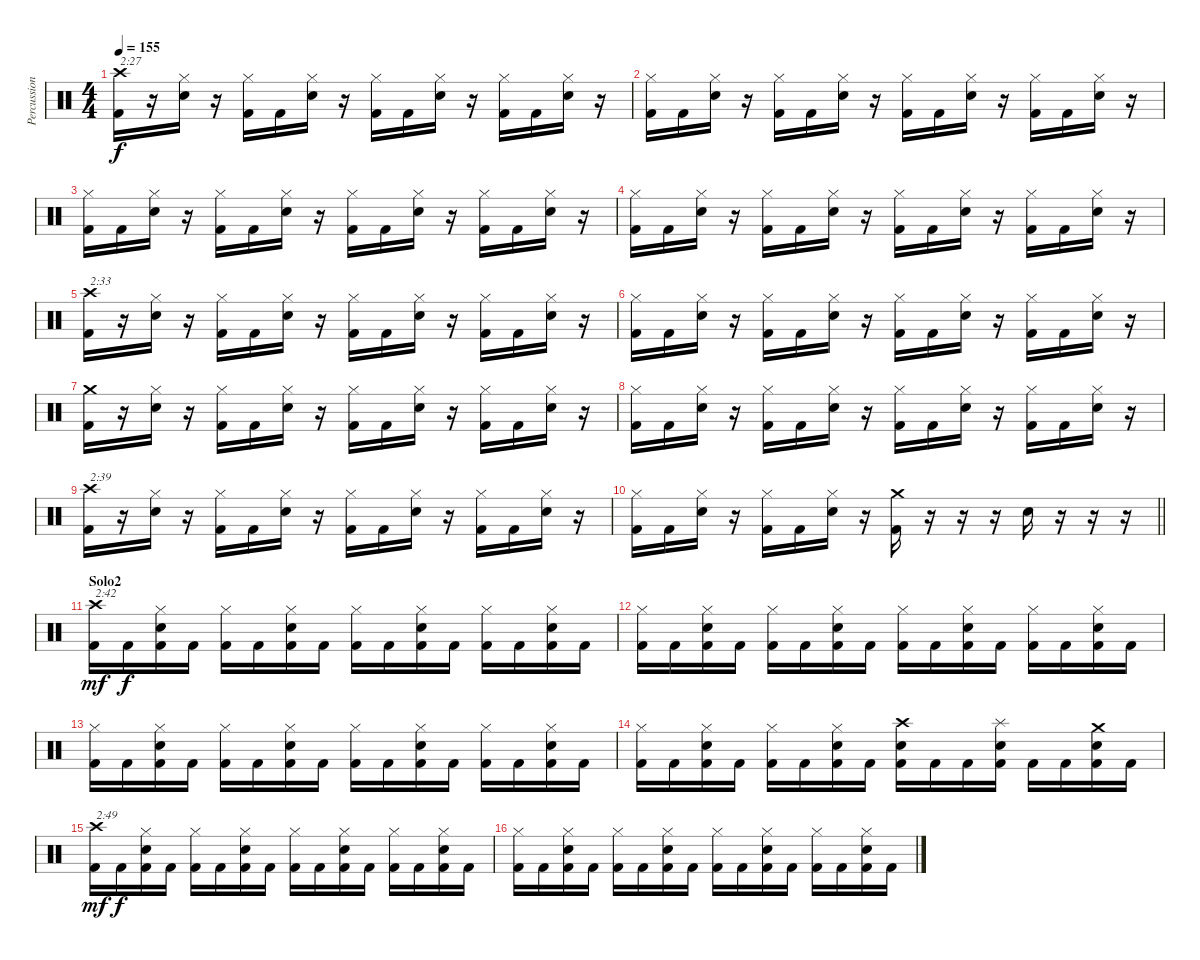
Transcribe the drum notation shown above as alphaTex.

\track ("Percussion" "Percussion") {instrument percussion}
\staff {score}
\articulation defaults
\ts (4 4)
\tempo 155
\clef neutral
\ks c
("Crash high (hit)" "Kick (hit) 2").16{txt "2:27" dy f} r.16 ("Hi-Hat (closed)" "Electric Snare (hit)").16 r.16 ("Hi-Hat (closed)" "Kick (hit) 2").16 "Kick (hit) 2".16 ("Hi-Hat (closed)" "Electric Snare (hit)").16 r.16 ("Hi-Hat (closed)" "Kick (hit) 2").16 "Kick (hit) 2".16 ("Hi-Hat (closed)" "Electric Snare (hit)").16 r.16 ("Hi-Hat (closed)" "Kick (hit) 2").16 "Kick (hit) 2".16 ("Hi-Hat (closed)" "Electric Snare (hit)").16 r.16 |
("Hi-Hat (closed)" "Kick (hit) 2").16 "Kick (hit) 2".16 ("Hi-Hat (closed)" "Electric Snare (hit)").16 r.16 ("Hi-Hat (closed)" "Kick (hit) 2").16 "Kick (hit) 2".16 ("Hi-Hat (closed)" "Electric Snare (hit)").16 r.16 ("Hi-Hat (closed)" "Kick (hit) 2").16 "Kick (hit) 2".16 ("Hi-Hat (closed)" "Electric Snare (hit)").16 r.16 ("Hi-Hat (closed)" "Kick (hit) 2").16 "Kick (hit) 2".16 ("Hi-Hat (closed)" "Electric Snare (hit)").16 r.16 |
("Hi-Hat (closed)" "Kick (hit) 2").16 "Kick (hit) 2".16 ("Hi-Hat (closed)" "Electric Snare (hit)").16 r.16 ("Hi-Hat (closed)" "Kick (hit) 2").16 "Kick (hit) 2".16 ("Hi-Hat (closed)" "Electric Snare (hit)").16 r.16 ("Hi-Hat (closed)" "Kick (hit) 2").16 "Kick (hit) 2".16 ("Hi-Hat (closed)" "Electric Snare (hit)").16 r.16 ("Hi-Hat (closed)" "Kick (hit) 2").16 "Kick (hit) 2".16 ("Hi-Hat (closed)" "Electric Snare (hit)").16 r.16 |
("Hi-Hat (closed)" "Kick (hit) 2").16 "Kick (hit) 2".16 ("Hi-Hat (closed)" "Electric Snare (hit)").16 r.16 ("Hi-Hat (closed)" "Kick (hit) 2").16 "Kick (hit) 2".16 ("Hi-Hat (closed)" "Electric Snare (hit)").16 r.16 ("Hi-Hat (closed)" "Kick (hit) 2").16 "Kick (hit) 2".16 ("Hi-Hat (closed)" "Electric Snare (hit)").16 r.16 ("Hi-Hat (closed)" "Kick (hit) 2").16 "Kick (hit) 2".16 ("Hi-Hat (closed)" "Electric Snare (hit)").16 r.16 |
("Crash high (hit)" "Kick (hit) 2").16{txt "2:33"} r.16 ("Hi-Hat (closed)" "Electric Snare (hit)").16 r.16 ("Hi-Hat (closed)" "Kick (hit) 2").16 "Kick (hit) 2".16 ("Hi-Hat (closed)" "Electric Snare (hit)").16 r.16 ("Hi-Hat (closed)" "Kick (hit) 2").16 "Kick (hit) 2".16 ("Hi-Hat (closed)" "Electric Snare (hit)").16 r.16 ("Hi-Hat (closed)" "Kick (hit) 2").16 "Kick (hit) 2".16 ("Hi-Hat (closed)" "Electric Snare (hit)").16 r.16 |
("Hi-Hat (closed)" "Kick (hit) 2").16 "Kick (hit) 2".16 ("Hi-Hat (closed)" "Electric Snare (hit)").16 r.16 ("Hi-Hat (closed)" "Kick (hit) 2").16 "Kick (hit) 2".16 ("Hi-Hat (closed)" "Electric Snare (hit)").16 r.16 ("Hi-Hat (closed)" "Kick (hit) 2").16 "Kick (hit) 2".16 ("Hi-Hat (closed)" "Electric Snare (hit)").16 r.16 ("Hi-Hat (closed)" "Kick (hit) 2").16 "Kick (hit) 2".16 ("Hi-Hat (closed)" "Electric Snare (hit)").16 r.16 |
("Crash medium (hit)" "Kick (hit) 2").16 r.16 ("Hi-Hat (closed)" "Electric Snare (hit)").16 r.16 ("Hi-Hat (closed)" "Kick (hit) 2").16 "Kick (hit) 2".16 ("Hi-Hat (closed)" "Electric Snare (hit)").16 r.16 ("Hi-Hat (closed)" "Kick (hit) 2").16 "Kick (hit) 2".16 ("Hi-Hat (closed)" "Electric Snare (hit)").16 r.16 ("Hi-Hat (closed)" "Kick (hit) 2").16 "Kick (hit) 2".16 ("Hi-Hat (closed)" "Electric Snare (hit)").16 r.16 |
("Hi-Hat (closed)" "Kick (hit) 2").16 "Kick (hit) 2".16 ("Hi-Hat (closed)" "Electric Snare (hit)").16 r.16 ("Hi-Hat (closed)" "Kick (hit) 2").16 "Kick (hit) 2".16 ("Hi-Hat (closed)" "Electric Snare (hit)").16 r.16 ("Hi-Hat (closed)" "Kick (hit) 2").16 "Kick (hit) 2".16 ("Hi-Hat (closed)" "Electric Snare (hit)").16 r.16 ("Hi-Hat (closed)" "Kick (hit) 2").16 "Kick (hit) 2".16 ("Hi-Hat (closed)" "Electric Snare (hit)").16 r.16 |
("Crash high (hit)" "Kick (hit) 2").16{txt "2:39"} r.16 ("Hi-Hat (closed)" "Electric Snare (hit)").16 r.16 ("Hi-Hat (closed)" "Kick (hit) 2").16 "Kick (hit) 2".16 ("Hi-Hat (closed)" "Electric Snare (hit)").16 r.16 ("Hi-Hat (closed)" "Kick (hit) 2").16 "Kick (hit) 2".16 ("Hi-Hat (closed)" "Electric Snare (hit)").16 r.16 ("Hi-Hat (closed)" "Kick (hit) 2").16 "Kick (hit) 2".16 ("Hi-Hat (closed)" "Electric Snare (hit)").16 r.16 |
\barLineRight lightlight
("Hi-Hat (closed)" "Kick (hit) 2").16 "Kick (hit) 2".16 ("Hi-Hat (closed)" "Electric Snare (hit)").16 r.16 ("Hi-Hat (closed)" "Kick (hit) 2").16 "Kick (hit) 2".16 ("Hi-Hat (closed)" "Electric Snare (hit)").16 r.16 ("Crash medium (hit)" "Kick (hit) 2").16 r.16 r.16 r.16 "Electric Snare (hit)".16 r.16 r.16 r.16 |
\section ("" "Solo2")
("Crash high (hit)" "Kick (hit) 2").16{txt "2:42" dy mf} "Kick (hit) 2".16{dy f} ("Hi-Hat (closed)" "Electric Snare (hit)" "Kick (hit) 2").16 "Kick (hit) 2".16 ("Hi-Hat (closed)" "Kick (hit) 2").16 "Kick (hit) 2".16 ("Hi-Hat (closed)" "Electric Snare (hit)" "Kick (hit) 2").16 "Kick (hit) 2".16 ("Hi-Hat (closed)" "Kick (hit) 2").16 "Kick (hit) 2".16 ("Hi-Hat (closed)" "Electric Snare (hit)" "Kick (hit) 2").16 "Kick (hit) 2".16 ("Hi-Hat (closed)" "Kick (hit) 2").16 "Kick (hit) 2".16 ("Hi-Hat (closed)" "Electric Snare (hit)" "Kick (hit) 2").16 "Kick (hit) 2".16 |
("Hi-Hat (closed)" "Kick (hit) 2").16 "Kick (hit) 2".16 ("Hi-Hat (closed)" "Electric Snare (hit)" "Kick (hit) 2").16 "Kick (hit) 2".16 ("Hi-Hat (closed)" "Kick (hit) 2").16 "Kick (hit) 2".16 ("Hi-Hat (closed)" "Electric Snare (hit)" "Kick (hit) 2").16 "Kick (hit) 2".16 ("Hi-Hat (closed)" "Kick (hit) 2").16 "Kick (hit) 2".16 ("Hi-Hat (closed)" "Electric Snare (hit)" "Kick (hit) 2").16 "Kick (hit) 2".16 ("Hi-Hat (closed)" "Kick (hit) 2").16 "Kick (hit) 2".16 ("Hi-Hat (closed)" "Electric Snare (hit)" "Kick (hit) 2").16 "Kick (hit) 2".16 |
("Hi-Hat (closed)" "Kick (hit) 2").16 "Kick (hit) 2".16 ("Hi-Hat (closed)" "Electric Snare (hit)" "Kick (hit) 2").16 "Kick (hit) 2".16 ("Hi-Hat (closed)" "Kick (hit) 2").16 "Kick (hit) 2".16 ("Hi-Hat (closed)" "Electric Snare (hit)" "Kick (hit) 2").16 "Kick (hit) 2".16 ("Hi-Hat (closed)" "Kick (hit) 2").16 "Kick (hit) 2".16 ("Hi-Hat (closed)" "Electric Snare (hit)" "Kick (hit) 2").16 "Kick (hit) 2".16 ("Hi-Hat (closed)" "Kick (hit) 2").16 "Kick (hit) 2".16 ("Hi-Hat (closed)" "Electric Snare (hit)" "Kick (hit) 2").16 "Kick (hit) 2".16 |
("Hi-Hat (closed)" "Kick (hit) 2").16 "Kick (hit) 2".16 ("Hi-Hat (closed)" "Electric Snare (hit)" "Kick (hit) 2").16 "Kick (hit) 2".16 ("Hi-Hat (closed)" "Kick (hit) 2").16 "Kick (hit) 2".16 ("Hi-Hat (closed)" "Electric Snare (hit)" "Kick (hit) 2").16 "Kick (hit) 2".16 ("Crash high (hit)" "Electric Snare (hit)" "Kick (hit) 2").16 "Kick (hit) 2".16 "Kick (hit) 2".16 ("Splash (hit)" "Electric Snare (hit)" "Kick (hit) 2").16 "Kick (hit) 2".16 "Kick (hit) 2".16 ("Crash medium (hit)" "Electric Snare (hit)" "Kick (hit) 2").16 "Kick (hit) 2".16 |
("Crash high (hit)" "Kick (hit) 2").16{txt "2:49" dy mf} "Kick (hit) 2".16{dy f} ("Hi-Hat (closed)" "Electric Snare (hit)" "Kick (hit) 2").16 "Kick (hit) 2".16 ("Hi-Hat (closed)" "Kick (hit) 2").16 "Kick (hit) 2".16 ("Hi-Hat (closed)" "Electric Snare (hit)" "Kick (hit) 2").16 "Kick (hit) 2".16 ("Hi-Hat (closed)" "Kick (hit) 2").16 "Kick (hit) 2".16 ("Hi-Hat (closed)" "Electric Snare (hit)" "Kick (hit) 2").16 "Kick (hit) 2".16 ("Hi-Hat (closed)" "Kick (hit) 2").16 "Kick (hit) 2".16 ("Hi-Hat (closed)" "Electric Snare (hit)" "Kick (hit) 2").16 "Kick (hit) 2".16 |
("Hi-Hat (closed)" "Kick (hit) 2").16 "Kick (hit) 2".16 ("Hi-Hat (closed)" "Electric Snare (hit)" "Kick (hit) 2").16 "Kick (hit) 2".16 ("Hi-Hat (closed)" "Kick (hit) 2").16 "Kick (hit) 2".16 ("Hi-Hat (closed)" "Electric Snare (hit)" "Kick (hit) 2").16 "Kick (hit) 2".16 ("Hi-Hat (closed)" "Kick (hit) 2").16 "Kick (hit) 2".16 ("Hi-Hat (closed)" "Electric Snare (hit)" "Kick (hit) 2").16 "Kick (hit) 2".16 ("Hi-Hat (closed)" "Kick (hit) 2").16 "Kick (hit) 2".16 ("Hi-Hat (closed)" "Electric Snare (hit)" "Kick (hit) 2").16 "Kick (hit) 2".16
